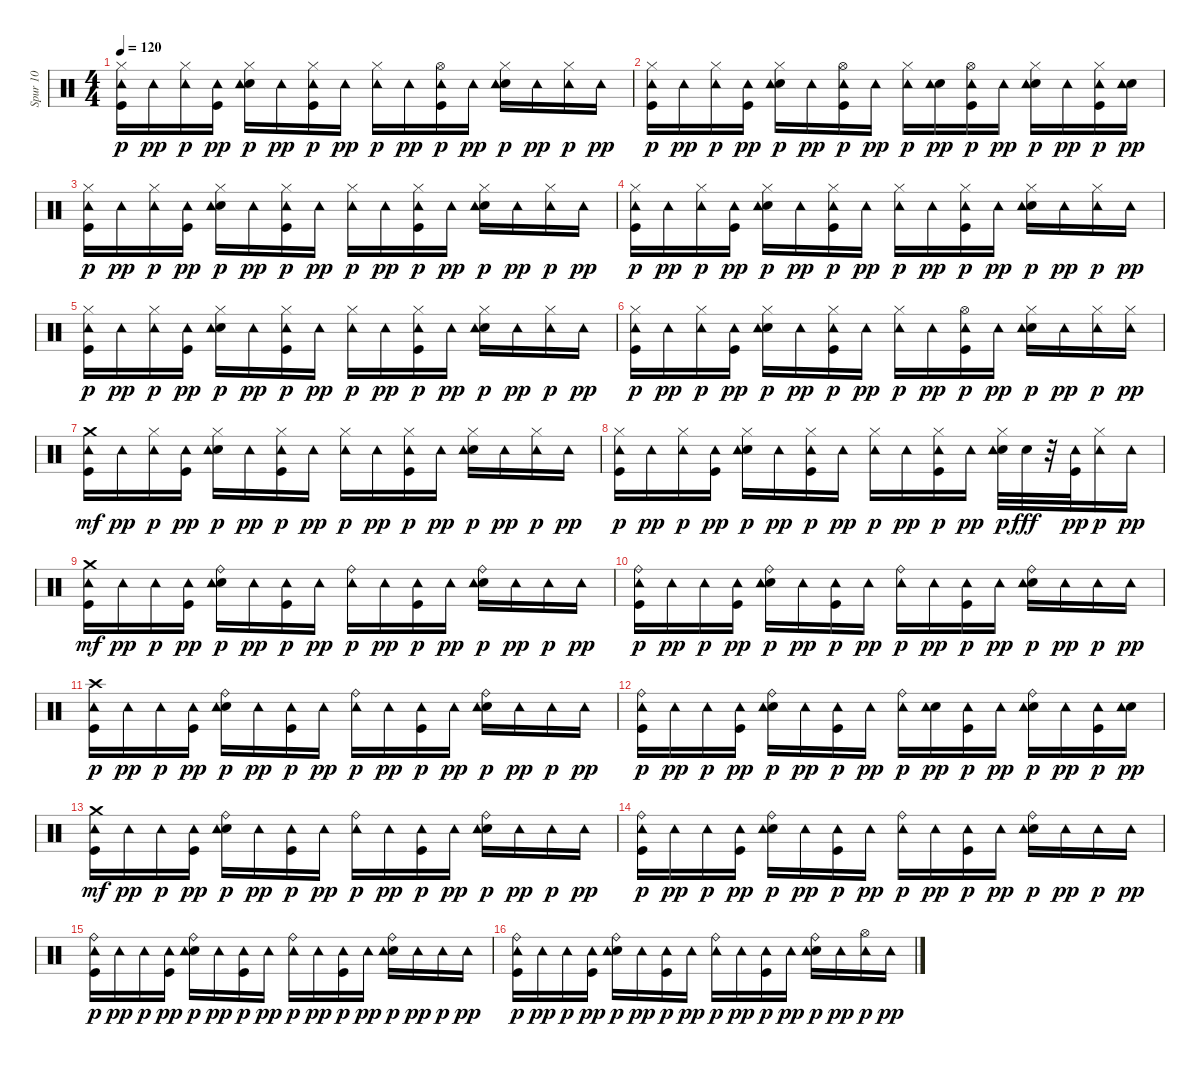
\track ("Spur 10" "Spur 10") {instrument percussion}
\staff {score}
\articulation defaults
\ts (4 4)
\tempo 120
\clef neutral
\ks c
("Kick (hit)" "Hi-Hat (closed)" "Tambourine (hit)").16{dy p} "Tambourine (hit)".16{dy pp} ("Hi-Hat (closed)" "Tambourine (hit)").16{dy p} ("Kick (hit)" "Tambourine (hit)").16{dy pp} ("Electric Snare (hit)" "Hi-Hat (closed)" "Tambourine (hit)").16{dy p} "Tambourine (hit)".16{dy pp} ("Kick (hit)" "Hi-Hat (closed)" "Tambourine (hit)").16{dy p} "Tambourine (hit)".16{dy pp} ("Hi-Hat (closed)" "Tambourine (hit)").16{dy p} "Tambourine (hit)".16{dy pp} ("Kick (hit)" "Hi-Hat (open)" "Tambourine (hit)").16{dy p} "Tambourine (hit)".16{dy pp} ("Electric Snare (hit)" "Hi-Hat (closed)" "Tambourine (hit)").16{dy p} "Tambourine (hit)".16{dy pp} ("Hi-Hat (closed)" "Tambourine (hit)").16{dy p} "Tambourine (hit)".16{dy pp} |
("Kick (hit)" "Hi-Hat (closed)" "Tambourine (hit)").16{dy p} "Tambourine (hit)".16{dy pp} ("Hi-Hat (closed)" "Tambourine (hit)").16{dy p} ("Kick (hit)" "Tambourine (hit)").16{dy pp} ("Electric Snare (hit)" "Hi-Hat (closed)" "Tambourine (hit)").16{dy p} "Tambourine (hit)".16{dy pp} ("Kick (hit)" "Hi-Hat (open)" "Tambourine (hit)").16{dy p} "Tambourine (hit)".16{dy pp} ("Hi-Hat (closed)" "Tambourine (hit)").16{dy p} ("Electric Snare (hit)" "Tambourine (hit)").16{dy pp} ("Kick (hit)" "Hi-Hat (open)" "Tambourine (hit)").16{dy p} "Tambourine (hit)".16{dy pp} ("Electric Snare (hit)" "Hi-Hat (closed)" "Tambourine (hit)").16{dy p} "Tambourine (hit)".16{dy pp} ("Kick (hit)" "Hi-Hat (closed)" "Tambourine (hit)").16{dy p} ("Electric Snare (hit)" "Tambourine (hit)").16{dy pp} |
("Kick (hit)" "Hi-Hat (closed)" "Tambourine (hit)").16{dy p} "Tambourine (hit)".16{dy pp} ("Hi-Hat (closed)" "Tambourine (hit)").16{dy p} ("Kick (hit)" "Tambourine (hit)").16{dy pp} ("Electric Snare (hit)" "Hi-Hat (closed)" "Tambourine (hit)").16{dy p} "Tambourine (hit)".16{dy pp} ("Kick (hit)" "Hi-Hat (closed)" "Tambourine (hit)").16{dy p} "Tambourine (hit)".16{dy pp} ("Hi-Hat (closed)" "Tambourine (hit)").16{dy p} "Tambourine (hit)".16{dy pp} ("Kick (hit)" "Hi-Hat (closed)" "Tambourine (hit)").16{dy p} "Tambourine (hit)".16{dy pp} ("Electric Snare (hit)" "Hi-Hat (closed)" "Tambourine (hit)").16{dy p} "Tambourine (hit)".16{dy pp} ("Hi-Hat (closed)" "Tambourine (hit)").16{dy p} "Tambourine (hit)".16{dy pp} |
("Kick (hit)" "Hi-Hat (closed)" "Tambourine (hit)").16{dy p} "Tambourine (hit)".16{dy pp} ("Hi-Hat (closed)" "Tambourine (hit)").16{dy p} ("Kick (hit)" "Tambourine (hit)").16{dy pp} ("Electric Snare (hit)" "Hi-Hat (closed)" "Tambourine (hit)").16{dy p} "Tambourine (hit)".16{dy pp} ("Kick (hit)" "Hi-Hat (closed)" "Tambourine (hit)").16{dy p} "Tambourine (hit)".16{dy pp} ("Hi-Hat (closed)" "Tambourine (hit)").16{dy p} "Tambourine (hit)".16{dy pp} ("Kick (hit)" "Hi-Hat (closed)" "Tambourine (hit)").16{dy p} "Tambourine (hit)".16{dy pp} ("Electric Snare (hit)" "Hi-Hat (closed)" "Tambourine (hit)").16{dy p} "Tambourine (hit)".16{dy pp} ("Hi-Hat (closed)" "Tambourine (hit)").16{dy p} "Tambourine (hit)".16{dy pp} |
("Kick (hit)" "Hi-Hat (closed)" "Tambourine (hit)").16{dy p} "Tambourine (hit)".16{dy pp} ("Hi-Hat (closed)" "Tambourine (hit)").16{dy p} ("Kick (hit)" "Tambourine (hit)").16{dy pp} ("Electric Snare (hit)" "Hi-Hat (closed)" "Tambourine (hit)").16{dy p} "Tambourine (hit)".16{dy pp} ("Kick (hit)" "Hi-Hat (closed)" "Tambourine (hit)").16{dy p} "Tambourine (hit)".16{dy pp} ("Hi-Hat (closed)" "Tambourine (hit)").16{dy p} "Tambourine (hit)".16{dy pp} ("Kick (hit)" "Hi-Hat (closed)" "Tambourine (hit)").16{dy p} "Tambourine (hit)".16{dy pp} ("Electric Snare (hit)" "Hi-Hat (closed)" "Tambourine (hit)").16{dy p} "Tambourine (hit)".16{dy pp} ("Hi-Hat (closed)" "Tambourine (hit)").16{dy p} "Tambourine (hit)".16{dy pp} |
("Kick (hit)" "Hi-Hat (closed)" "Tambourine (hit)").16{dy p} "Tambourine (hit)".16{dy pp} ("Hi-Hat (closed)" "Tambourine (hit)").16{dy p} ("Kick (hit)" "Tambourine (hit)").16{dy pp} ("Electric Snare (hit)" "Hi-Hat (closed)" "Tambourine (hit)").16{dy p} "Tambourine (hit)".16{dy pp} ("Kick (hit)" "Hi-Hat (closed)" "Tambourine (hit)").16{dy p} "Tambourine (hit)".16{dy pp} ("Hi-Hat (closed)" "Tambourine (hit)").16{dy p} "Tambourine (hit)".16{dy pp} ("Kick (hit)" "Hi-Hat (open)" "Tambourine (hit)").16{dy p} "Tambourine (hit)".16{dy pp} ("Electric Snare (hit)" "Hi-Hat (closed)" "Tambourine (hit)").16{dy p} "Tambourine (hit)".16{dy pp} ("Hi-Hat (closed)" "Tambourine (hit)").16{dy p} ("Hi-Hat (closed)" "Tambourine (hit)").16{dy pp} |
("Kick (hit)" "Tambourine (hit)" "Crash medium (hit)").16{dy mf} "Tambourine (hit)".16{dy pp} ("Hi-Hat (closed)" "Tambourine (hit)").16{dy p} ("Kick (hit)" "Tambourine (hit)").16{dy pp} ("Electric Snare (hit)" "Hi-Hat (closed)" "Tambourine (hit)").16{dy p} "Tambourine (hit)".16{dy pp} ("Kick (hit)" "Hi-Hat (closed)" "Tambourine (hit)").16{dy p} "Tambourine (hit)".16{dy pp} ("Hi-Hat (closed)" "Tambourine (hit)").16{dy p} "Tambourine (hit)".16{dy pp} ("Kick (hit)" "Hi-Hat (closed)" "Tambourine (hit)").16{dy p} "Tambourine (hit)".16{dy pp} ("Electric Snare (hit)" "Hi-Hat (closed)" "Tambourine (hit)").16{dy p} "Tambourine (hit)".16{dy pp} ("Hi-Hat (closed)" "Tambourine (hit)").16{dy p} "Tambourine (hit)".16{dy pp} |
("Kick (hit)" "Hi-Hat (closed)" "Tambourine (hit)").16{dy p} "Tambourine (hit)".16{dy pp} ("Hi-Hat (closed)" "Tambourine (hit)").16{dy p} ("Kick (hit)" "Tambourine (hit)").16{dy pp} ("Electric Snare (hit)" "Hi-Hat (closed)" "Tambourine (hit)").16{dy p} "Tambourine (hit)".16{dy pp} ("Kick (hit)" "Hi-Hat (closed)" "Tambourine (hit)").16{dy p} "Tambourine (hit)".16{dy pp} ("Hi-Hat (closed)" "Tambourine (hit)").16{dy p} "Tambourine (hit)".16{dy pp} ("Kick (hit)" "Hi-Hat (closed)" "Tambourine (hit)").16{dy p} "Tambourine (hit)".16{dy pp} ("Electric Snare (hit)" "Hi-Hat (closed)" "Tambourine (hit)").32{dy p} "Electric Snare (hit)".32{dy fff} r.32 ("Kick (hit)" "Tambourine (hit)").32{dy pp} ("Hi-Hat (closed)" "Tambourine (hit)").16{dy p} "Tambourine (hit)".16{dy pp} |
("Kick (hit)" "Tambourine (hit)" "Crash medium (hit)").16{dy mf} "Tambourine (hit)".16{dy pp} "Tambourine (hit)".16{dy p} ("Kick (hit)" "Tambourine (hit)").16{dy pp} ("Electric Snare (hit)" "Ride (bell)" "Tambourine (hit)").16{dy p} "Tambourine (hit)".16{dy pp} ("Kick (hit)" "Tambourine (hit)").16{dy p} "Tambourine (hit)".16{dy pp} ("Ride (bell)" "Tambourine (hit)").16{dy p} "Tambourine (hit)".16{dy pp} ("Kick (hit)" "Tambourine (hit)").16{dy p} "Tambourine (hit)".16{dy pp} ("Electric Snare (hit)" "Ride (bell)" "Tambourine (hit)").16{dy p} "Tambourine (hit)".16{dy pp} "Tambourine (hit)".16{dy p} "Tambourine (hit)".16{dy pp} |
("Kick (hit)" "Ride (bell)" "Tambourine (hit)").16{dy p} "Tambourine (hit)".16{dy pp} "Tambourine (hit)".16{dy p} ("Kick (hit)" "Tambourine (hit)").16{dy pp} ("Electric Snare (hit)" "Ride (bell)" "Tambourine (hit)").16{dy p} "Tambourine (hit)".16{dy pp} ("Kick (hit)" "Tambourine (hit)").16{dy p} "Tambourine (hit)".16{dy pp} ("Ride (bell)" "Tambourine (hit)").16{dy p} "Tambourine (hit)".16{dy pp} ("Kick (hit)" "Tambourine (hit)").16{dy p} "Tambourine (hit)".16{dy pp} ("Electric Snare (hit)" "Ride (bell)" "Tambourine (hit)").16{dy p} "Tambourine (hit)".16{dy pp} "Tambourine (hit)".16{dy p} "Tambourine (hit)".16{dy pp} |
("Kick (hit)" "Crash high (hit)" "Tambourine (hit)").16{dy p} "Tambourine (hit)".16{dy pp} "Tambourine (hit)".16{dy p} ("Kick (hit)" "Tambourine (hit)").16{dy pp} ("Electric Snare (hit)" "Ride (bell)" "Tambourine (hit)").16{dy p} "Tambourine (hit)".16{dy pp} ("Kick (hit)" "Tambourine (hit)").16{dy p} "Tambourine (hit)".16{dy pp} ("Ride (bell)" "Tambourine (hit)").16{dy p} "Tambourine (hit)".16{dy pp} ("Kick (hit)" "Tambourine (hit)").16{dy p} "Tambourine (hit)".16{dy pp} ("Electric Snare (hit)" "Ride (bell)" "Tambourine (hit)").16{dy p} "Tambourine (hit)".16{dy pp} "Tambourine (hit)".16{dy p} "Tambourine (hit)".16{dy pp} |
("Kick (hit)" "Ride (bell)" "Tambourine (hit)").16{dy p} "Tambourine (hit)".16{dy pp} "Tambourine (hit)".16{dy p} ("Kick (hit)" "Tambourine (hit)").16{dy pp} ("Electric Snare (hit)" "Ride (bell)" "Tambourine (hit)").16{dy p} "Tambourine (hit)".16{dy pp} ("Kick (hit)" "Tambourine (hit)").16{dy p} "Tambourine (hit)".16{dy pp} ("Ride (bell)" "Tambourine (hit)").16{dy p} ("Electric Snare (hit)" "Tambourine (hit)").16{dy pp} ("Kick (hit)" "Tambourine (hit)").16{dy p} "Tambourine (hit)".16{dy pp} ("Electric Snare (hit)" "Ride (bell)" "Tambourine (hit)").16{dy p} "Tambourine (hit)".16{dy pp} ("Kick (hit)" "Tambourine (hit)").16{dy p} ("Electric Snare (hit)" "Tambourine (hit)").16{dy pp} |
("Kick (hit)" "Tambourine (hit)" "Crash medium (hit)").16{dy mf} "Tambourine (hit)".16{dy pp} "Tambourine (hit)".16{dy p} ("Kick (hit)" "Tambourine (hit)").16{dy pp} ("Electric Snare (hit)" "Ride (bell)" "Tambourine (hit)").16{dy p} "Tambourine (hit)".16{dy pp} ("Kick (hit)" "Tambourine (hit)").16{dy p} "Tambourine (hit)".16{dy pp} ("Ride (bell)" "Tambourine (hit)").16{dy p} "Tambourine (hit)".16{dy pp} ("Kick (hit)" "Tambourine (hit)").16{dy p} "Tambourine (hit)".16{dy pp} ("Electric Snare (hit)" "Ride (bell)" "Tambourine (hit)").16{dy p} "Tambourine (hit)".16{dy pp} "Tambourine (hit)".16{dy p} "Tambourine (hit)".16{dy pp} |
("Kick (hit)" "Ride (bell)" "Tambourine (hit)").16{dy p} "Tambourine (hit)".16{dy pp} "Tambourine (hit)".16{dy p} ("Kick (hit)" "Tambourine (hit)").16{dy pp} ("Electric Snare (hit)" "Ride (bell)" "Tambourine (hit)").16{dy p} "Tambourine (hit)".16{dy pp} ("Kick (hit)" "Tambourine (hit)").16{dy p} "Tambourine (hit)".16{dy pp} ("Ride (bell)" "Tambourine (hit)").16{dy p} "Tambourine (hit)".16{dy pp} ("Kick (hit)" "Tambourine (hit)").16{dy p} "Tambourine (hit)".16{dy pp} ("Electric Snare (hit)" "Ride (bell)" "Tambourine (hit)").16{dy p} "Tambourine (hit)".16{dy pp} "Tambourine (hit)".16{dy p} "Tambourine (hit)".16{dy pp} |
("Kick (hit)" "Ride (bell)" "Tambourine (hit)").16{dy p} "Tambourine (hit)".16{dy pp} "Tambourine (hit)".16{dy p} ("Kick (hit)" "Tambourine (hit)").16{dy pp} ("Electric Snare (hit)" "Ride (bell)" "Tambourine (hit)").16{dy p} "Tambourine (hit)".16{dy pp} ("Kick (hit)" "Tambourine (hit)").16{dy p} "Tambourine (hit)".16{dy pp} ("Ride (bell)" "Tambourine (hit)").16{dy p} "Tambourine (hit)".16{dy pp} ("Kick (hit)" "Tambourine (hit)").16{dy p} "Tambourine (hit)".16{dy pp} ("Electric Snare (hit)" "Ride (bell)" "Tambourine (hit)").16{dy p} "Tambourine (hit)".16{dy pp} "Tambourine (hit)".16{dy p} "Tambourine (hit)".16{dy pp} |
("Kick (hit)" "Ride (bell)" "Tambourine (hit)").16{dy p} "Tambourine (hit)".16{dy pp} "Tambourine (hit)".16{dy p} ("Kick (hit)" "Tambourine (hit)").16{dy pp} ("Electric Snare (hit)" "Ride (bell)" "Tambourine (hit)").16{dy p} "Tambourine (hit)".16{dy pp} ("Kick (hit)" "Tambourine (hit)").16{dy p} "Tambourine (hit)".16{dy pp} ("Ride (bell)" "Tambourine (hit)").16{dy p} "Tambourine (hit)".16{dy pp} ("Kick (hit)" "Tambourine (hit)").16{dy p} "Tambourine (hit)".16{dy pp} ("Electric Snare (hit)" "Ride (bell)" "Tambourine (hit)").16{dy p} "Tambourine (hit)".16{dy pp} ("Hi-Hat (open)" "Tambourine (hit)").16{dy p} "Tambourine (hit)".16{dy pp}
